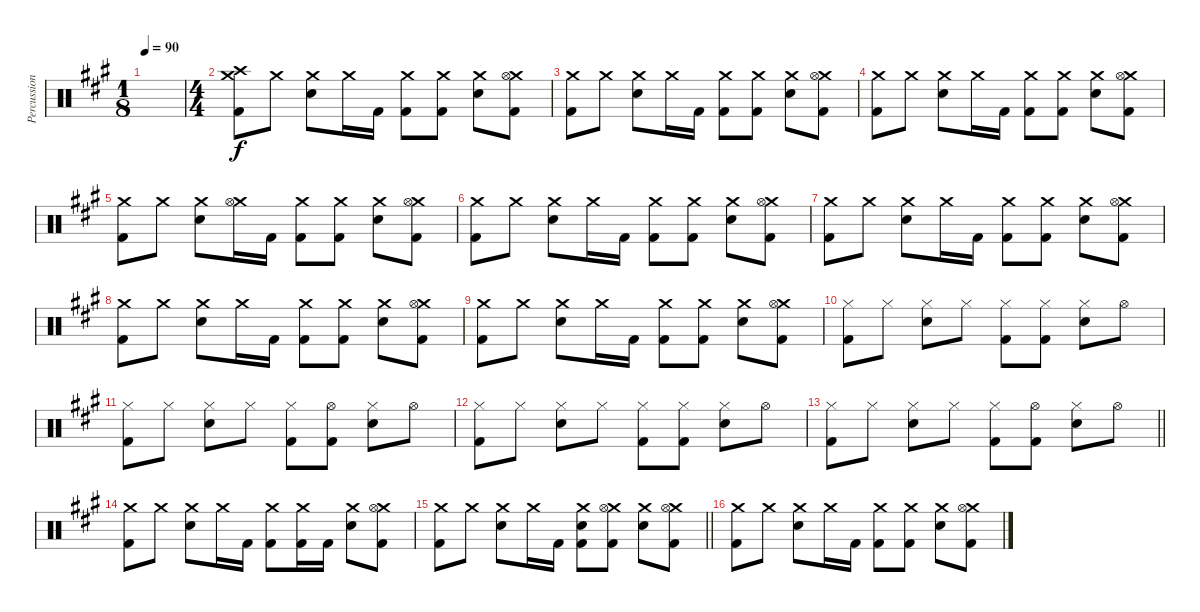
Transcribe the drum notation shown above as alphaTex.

\track ("Percussion" "Percussion") {instrument percussion}
\staff {score}
\articulation defaults
\ts (1 8)
\tempo 90
\clef neutral
\ks a
|
\ts (4 4)
("Crash high (hit)" "Crash medium (hit)" "Kick (hit) 2").8 "Crash medium (hit)".8 ("Crash medium (hit)" "Electric Snare (hit)").8 "Crash medium (hit)".16 "Kick (hit) 2".16 ("Crash medium (hit)" "Kick (hit) 2").8 ("Crash medium (hit)" "Kick (hit) 2").8 ("Crash medium (hit)" "Electric Snare (hit)").8 ("Crash medium (hit)" "Hi-Hat (open)" "Kick (hit) 2").8 |
("Crash medium (hit)" "Kick (hit) 2").8 "Crash medium (hit)".8 ("Crash medium (hit)" "Electric Snare (hit)").8 "Crash medium (hit)".16 "Kick (hit) 2".16 ("Crash medium (hit)" "Kick (hit) 2").8 ("Crash medium (hit)" "Kick (hit) 2").8 ("Crash medium (hit)" "Electric Snare (hit)").8 ("Crash medium (hit)" "Hi-Hat (open)" "Kick (hit) 2").8 |
("Crash medium (hit)" "Kick (hit) 2").8 "Crash medium (hit)".8 ("Crash medium (hit)" "Electric Snare (hit)").8 "Crash medium (hit)".16 "Kick (hit) 2".16 ("Crash medium (hit)" "Kick (hit) 2").8 ("Crash medium (hit)" "Kick (hit) 2").8 ("Crash medium (hit)" "Electric Snare (hit)").8 ("Crash medium (hit)" "Hi-Hat (open)" "Kick (hit) 2").8 |
("Crash medium (hit)" "Kick (hit) 2").8 "Crash medium (hit)".8 ("Crash medium (hit)" "Electric Snare (hit)").8 ("Crash medium (hit)" "Hi-Hat (open)").16 "Kick (hit) 2".16 ("Crash medium (hit)" "Kick (hit) 2").8 ("Crash medium (hit)" "Kick (hit) 2").8 ("Crash medium (hit)" "Electric Snare (hit)").8 ("Crash medium (hit)" "Hi-Hat (open)" "Kick (hit) 2").8 |
("Crash medium (hit)" "Kick (hit) 2").8 "Crash medium (hit)".8 ("Crash medium (hit)" "Electric Snare (hit)").8 "Crash medium (hit)".16 "Kick (hit) 2".16 ("Crash medium (hit)" "Kick (hit) 2").8 ("Crash medium (hit)" "Kick (hit) 2").8 ("Crash medium (hit)" "Electric Snare (hit)").8 ("Crash medium (hit)" "Hi-Hat (open)" "Kick (hit) 2").8 |
("Crash medium (hit)" "Kick (hit) 2").8 "Crash medium (hit)".8 ("Crash medium (hit)" "Electric Snare (hit)").8 "Crash medium (hit)".16 "Kick (hit) 2".16 ("Crash medium (hit)" "Kick (hit) 2").8 ("Crash medium (hit)" "Kick (hit) 2").8 ("Crash medium (hit)" "Electric Snare (hit)").8 ("Crash medium (hit)" "Hi-Hat (open)" "Kick (hit) 2").8 |
("Crash medium (hit)" "Kick (hit) 2").8 "Crash medium (hit)".8 ("Crash medium (hit)" "Electric Snare (hit)").8 "Crash medium (hit)".16 "Kick (hit) 2".16 ("Crash medium (hit)" "Kick (hit) 2").8 ("Crash medium (hit)" "Kick (hit) 2").8 ("Crash medium (hit)" "Electric Snare (hit)").8 ("Crash medium (hit)" "Hi-Hat (open)" "Kick (hit) 2").8 |
("Crash medium (hit)" "Kick (hit) 2").8 "Crash medium (hit)".8 ("Crash medium (hit)" "Electric Snare (hit)").8 "Crash medium (hit)".16 "Kick (hit) 2".16 ("Crash medium (hit)" "Kick (hit) 2").8 ("Crash medium (hit)" "Kick (hit) 2").8 ("Crash medium (hit)" "Electric Snare (hit)").8 ("Crash medium (hit)" "Hi-Hat (open)" "Kick (hit) 2").8 |
("Hi-Hat (closed)" "Kick (hit) 2").8 "Hi-Hat (closed)".8 ("Hi-Hat (closed)" "Electric Snare (hit)").8 "Hi-Hat (closed)".8 ("Hi-Hat (closed)" "Kick (hit) 2").8 ("Hi-Hat (closed)" "Kick (hit) 2").8 ("Hi-Hat (closed)" "Electric Snare (hit)").8 "Hi-Hat (open)".8 |
("Hi-Hat (closed)" "Kick (hit) 2").8 "Hi-Hat (closed)".8 ("Hi-Hat (closed)" "Electric Snare (hit)").8 "Hi-Hat (closed)".8 ("Hi-Hat (closed)" "Kick (hit) 2").8 ("Hi-Hat (open)" "Kick (hit) 2").8 ("Hi-Hat (closed)" "Electric Snare (hit)").8 "Hi-Hat (open)".8 |
("Hi-Hat (closed)" "Kick (hit) 2").8 "Hi-Hat (closed)".8 ("Hi-Hat (closed)" "Electric Snare (hit)").8 "Hi-Hat (closed)".8 ("Hi-Hat (closed)" "Kick (hit) 2").8 ("Hi-Hat (closed)" "Kick (hit) 2").8 ("Hi-Hat (closed)" "Electric Snare (hit)").8 "Hi-Hat (open)".8 |
\barLineRight lightlight
("Hi-Hat (closed)" "Kick (hit) 2").8 "Hi-Hat (closed)".8 ("Hi-Hat (closed)" "Electric Snare (hit)").8 "Hi-Hat (closed)".8 ("Hi-Hat (closed)" "Kick (hit) 2").8 ("Hi-Hat (open)" "Kick (hit) 2").8 ("Hi-Hat (closed)" "Electric Snare (hit)").8 "Hi-Hat (open)".8 |
("Crash medium (hit)" "Kick (hit) 2").8 "Crash medium (hit)".8 ("Crash medium (hit)" "Electric Snare (hit)").8 "Crash medium (hit)".16 "Kick (hit) 2".16 ("Crash medium (hit)" "Kick (hit) 2").8 ("Crash medium (hit)" "Kick (hit) 2").16 "Kick (hit) 2".16 ("Crash medium (hit)" "Electric Snare (hit)").8 ("Crash medium (hit)" "Hi-Hat (open)" "Kick (hit) 2").8 |
\barLineRight lightlight
("Crash medium (hit)" "Kick (hit) 2").8 "Crash medium (hit)".8 ("Crash medium (hit)" "Electric Snare (hit)").8 "Crash medium (hit)".16 "Kick (hit) 2".16 ("Crash medium (hit)" "Electric Snare (hit)" "Kick (hit) 2").8 ("Crash medium (hit)" "Hi-Hat (open)" "Kick (hit) 2").8 ("Crash medium (hit)" "Electric Snare (hit)").8 ("Crash medium (hit)" "Hi-Hat (open)" "Kick (hit) 2").8 |
("Crash medium (hit)" "Kick (hit) 2").8 "Crash medium (hit)".8 ("Crash medium (hit)" "Electric Snare (hit)").8 "Crash medium (hit)".16 "Kick (hit) 2".16 ("Crash medium (hit)" "Kick (hit) 2").8 ("Crash medium (hit)" "Kick (hit) 2").8 ("Crash medium (hit)" "Electric Snare (hit)").8 ("Crash medium (hit)" "Hi-Hat (open)" "Kick (hit) 2").8
